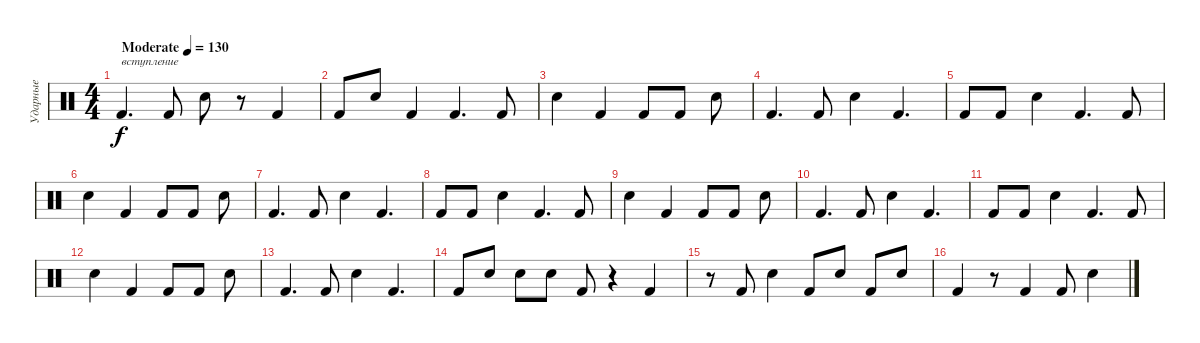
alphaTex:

\track ("Ударные" "Ударные") {instrument percussion}
\staff {score}
\articulation defaults
\ts (4 4)
\tempo (130 "Moderate")
\clef neutral
\ks c "Kick (hit) 2".4{d txt "вступление" dy f} "Kick (hit) 2".8 "Electric Snare (hit)".8
r.8 "Kick (hit) 2".4 |
"Kick (hit) 2".8 "Electric Snare (hit)".8 "Kick (hit) 2".4 "Kick (hit) 2".4{d} "Kick (hit) 2".8 |
"Electric Snare (hit)".4 "Kick (hit) 2".4 "Kick (hit) 2".8 "Kick (hit) 2".8 "Electric Snare (hit)".8 |
"Kick (hit) 2".4{d} "Kick (hit) 2".8 "Electric Snare (hit)".4 "Kick (hit) 2".4{d} |
"Kick (hit) 2".8 "Kick (hit) 2".8 "Electric Snare (hit)".4 "Kick (hit) 2".4{d} "Kick (hit) 2".8 |
"Electric Snare (hit)".4 "Kick (hit) 2".4 "Kick (hit) 2".8 "Kick (hit) 2".8 "Electric Snare (hit)".8 |
"Kick (hit) 2".4{d} "Kick (hit) 2".8 "Electric Snare (hit)".4 "Kick (hit) 2".4{d} |
"Kick (hit) 2".8 "Kick (hit) 2".8 "Electric Snare (hit)".4 "Kick (hit) 2".4{d} "Kick (hit) 2".8 |
"Electric Snare (hit)".4 "Kick (hit) 2".4 "Kick (hit) 2".8 "Kick (hit) 2".8 "Electric Snare (hit)".8 |
"Kick (hit) 2".4{d} "Kick (hit) 2".8 "Electric Snare (hit)".4 "Kick (hit) 2".4{d} |
"Kick (hit) 2".8 "Kick (hit) 2".8 "Electric Snare (hit)".4 "Kick (hit) 2".4{d} "Kick (hit) 2".8 |
"Electric Snare (hit)".4 "Kick (hit) 2".4 "Kick (hit) 2".8 "Kick (hit) 2".8 "Electric Snare (hit)".8 |
"Kick (hit) 2".4{d} "Kick (hit) 2".8 "Electric Snare (hit)".4 "Kick (hit) 2".4{d} |
"Kick (hit) 2".8 "Electric Snare (hit)".8 "Electric Snare (hit)".8 "Electric Snare (hit)".8 "Kick (hit) 2".8 r.4 "Kick (hit) 2".4 |
r.8 "Kick (hit) 2".8 "Electric Snare (hit)".4 "Kick (hit) 2".8 "Electric Snare (hit)".8 "Kick (hit) 2".8 "Electric Snare (hit)".8 |
"Kick (hit) 2".4 r.8 "Kick (hit) 2".4 "Kick (hit) 2".8 "Electric Snare (hit)".4
